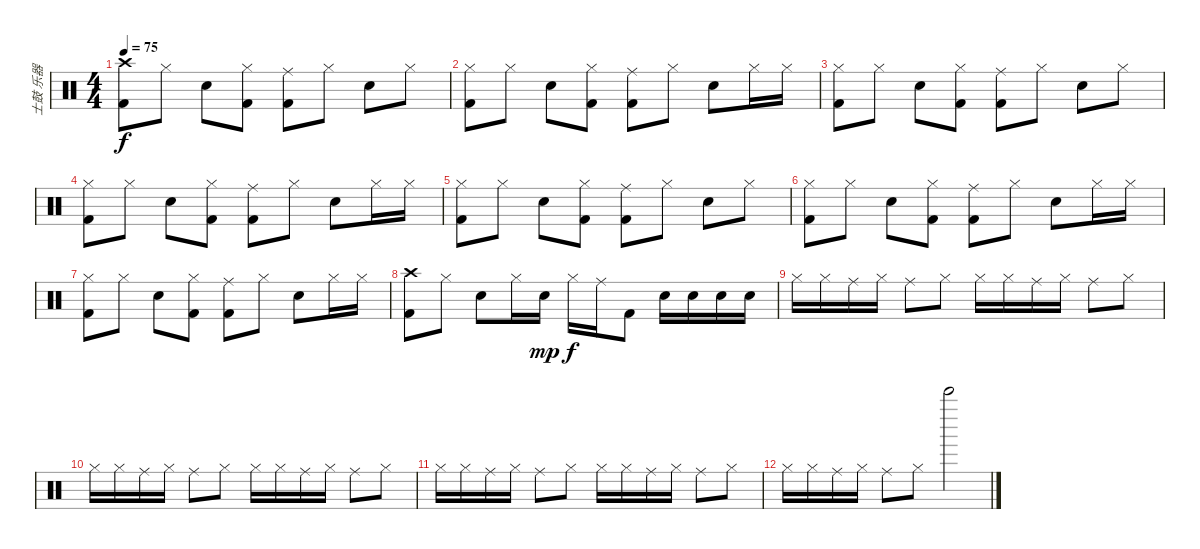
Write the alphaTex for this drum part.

\track ("士鼓 乐器" "士鼓 乐器") {instrument percussion}
\staff {score}
\articulation defaults
\ts (4 4)
\tempo 75
\clef neutral
\ks c
("Crash high (hit)" "Kick (hit) 2").8{dy f} "Hi-Hat (closed)".8 "Snare (hit) 2".8 ("Hi-Hat (closed)" "Kick (hit) 2").8 ("Ride (middle)" "Kick (hit) 2").8 "Hi-Hat (closed)".8 "Snare (hit) 2".8 "Hi-Hat (closed)".8 |
("Hi-Hat (closed)" "Kick (hit) 2").8 "Hi-Hat (closed)".8 "Snare (hit) 2".8 ("Hi-Hat (closed)" "Kick (hit) 2").8 ("Ride (middle)" "Kick (hit) 2").8 "Hi-Hat (closed)".8 "Snare (hit) 2".8 "Hi-Hat (closed)".16 "Hi-Hat (closed)".16 |
("Hi-Hat (closed)" "Kick (hit) 2").8 "Hi-Hat (closed)".8 "Snare (hit) 2".8 ("Hi-Hat (closed)" "Kick (hit) 2").8 ("Ride (middle)" "Kick (hit) 2").8 "Hi-Hat (closed)".8 "Snare (hit) 2".8 "Hi-Hat (closed)".8 |
("Hi-Hat (closed)" "Kick (hit) 2").8 "Hi-Hat (closed)".8 "Snare (hit) 2".8 ("Hi-Hat (closed)" "Kick (hit) 2").8 ("Ride (middle)" "Kick (hit) 2").8 "Hi-Hat (closed)".8 "Snare (hit) 2".8 "Hi-Hat (closed)".16 "Hi-Hat (closed)".16 |
("Hi-Hat (closed)" "Kick (hit) 2").8 "Hi-Hat (closed)".8 "Snare (hit) 2".8 ("Hi-Hat (closed)" "Kick (hit) 2").8 ("Ride (middle)" "Kick (hit) 2").8 "Hi-Hat (closed)".8 "Snare (hit) 2".8 "Hi-Hat (closed)".8 |
("Hi-Hat (closed)" "Kick (hit) 2").8 "Hi-Hat (closed)".8 "Snare (hit) 2".8 ("Hi-Hat (closed)" "Kick (hit) 2").8 ("Ride (middle)" "Kick (hit) 2").8 "Hi-Hat (closed)".8 "Snare (hit) 2".8 "Hi-Hat (closed)".16 "Hi-Hat (closed)".16 |
("Hi-Hat (closed)" "Kick (hit) 2").8 "Hi-Hat (closed)".8 "Snare (hit) 2".8 ("Hi-Hat (closed)" "Kick (hit) 2").8 ("Ride (middle)" "Kick (hit) 2").8 "Hi-Hat (closed)".8 "Snare (hit) 2".8 "Hi-Hat (closed)".16 "Hi-Hat (closed)".16 |
("Crash high (hit)" "Kick (hit) 2").8 "Hi-Hat (closed)".8 "Snare (hit) 2".8 "Hi-Hat (closed)".16 "Snare (hit) 2".16{dy mp} "Hi-Hat (closed)".16{dy f} "Ride (middle)".16 "Kick (hit) 2".8 "Snare (hit) 2".16 "Snare (hit) 2".16 "Snare (hit) 2".16 "Snare (hit) 2".16 |
"Hi-Hat (closed)".16 "Hi-Hat (closed)".16 "Ride (middle)".16 "Hi-Hat (closed)".16 "Ride (middle)".8 "Hi-Hat (closed)".8 "Hi-Hat (closed)".16 "Hi-Hat (closed)".16 "Ride (middle)".16 "Hi-Hat (closed)".16 "Ride (middle)".8 "Hi-Hat (closed)".8 |
"Hi-Hat (closed)".16 "Hi-Hat (closed)".16 "Ride (middle)".16 "Hi-Hat (closed)".16 "Ride (middle)".8 "Hi-Hat (closed)".8 "Hi-Hat (closed)".16 "Hi-Hat (closed)".16 "Ride (middle)".16 "Hi-Hat (closed)".16 "Ride (middle)".8 "Hi-Hat (closed)".8 |
"Hi-Hat (closed)".16 "Hi-Hat (closed)".16 "Ride (middle)".16 "Hi-Hat (closed)".16 "Ride (middle)".8 "Hi-Hat (closed)".8 "Hi-Hat (closed)".16 "Hi-Hat (closed)".16 "Ride (middle)".16 "Hi-Hat (closed)".16 "Ride (middle)".8 "Hi-Hat (closed)".8 |
"Hi-Hat (closed)".16 "Hi-Hat (closed)".16 "Ride (middle)".16 "Hi-Hat (closed)".16 "Ride (middle)".8 "Hi-Hat (closed)".8 "Bell Tree (hit)".2
